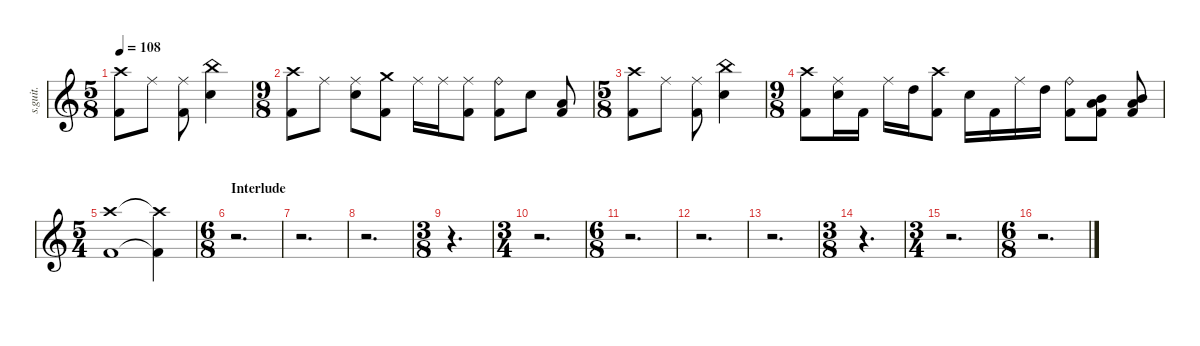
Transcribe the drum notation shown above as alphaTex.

\defaultSystemsLayout 4
\hideDynamics
\bracketExtendMode nobrackets
\track ("Danny Carey" "s.guit.") {instrument percussion}
\staff {score}
\articulation defaults
\ts (5 8)
\beaming (8 2 2 2 2)
\tempo 108
\clef g2
\ks c
("Crash high (hit)" "Kick (hit) 2").8{lyrics (0 "") lyrics (1 "") lyrics (2 "") lyrics (3 "") lyrics (4 "") dy f} "Ride (middle)".8{lyrics (0 "") lyrics (1 "") lyrics (2 "") lyrics (3 "") lyrics (4 "")} ("Ride (middle)" "Kick (hit) 2").8{lyrics (0 "") lyrics (1 "") lyrics (2 "") lyrics (3 "") lyrics (4 "")} ("Snare (hit) 2" "China (hit)").4{lyrics (0 "") lyrics (1 "") lyrics (2 "") lyrics (3 "") lyrics (4 "")} |
\ts (9 8)
\beaming (8 2 2 2 2)
("Crash high (hit)" "Kick (hit) 2").8{lyrics (0 "") lyrics (1 "") lyrics (2 "") lyrics (3 "") lyrics (4 "")} "Ride (middle)".8{lyrics (0 "") lyrics (1 "") lyrics (2 "") lyrics (3 "") lyrics (4 "")} ("Ride (middle)" "Snare (hit) 2").8{lyrics (0 "") lyrics (1 "") lyrics (2 "") lyrics (3 "") lyrics (4 "")} ("Kick (hit) 2" "Crash medium (hit)").8{lyrics (0 "") lyrics (1 "") lyrics (2 "") lyrics (3 "") lyrics (4 "")} "Ride (middle)".16{lyrics (0 "") lyrics (1 "") lyrics (2 "") lyrics (3 "") lyrics (4 "")} "Ride (middle)".16{lyrics (0 "") lyrics (1 "") lyrics (2 "") lyrics (3 "") lyrics (4 "")} ("Ride (middle)" "Kick (hit) 2").8{lyrics (0 "") lyrics (1 "") lyrics (2 "") lyrics (3 "") lyrics (4 "")} ("Ride (bell)" "Kick (hit) 2").8{lyrics (0 "") lyrics (1 "") lyrics (2 "") lyrics (3 "") lyrics (4 "")} "Snare (hit) 2".8{lyrics (0 "") lyrics (1 "") lyrics (2 "") lyrics (3 "") lyrics (4 "")} ("Kick (hit) 2" "Low Floor Tom (hit)").8{lyrics (0 "") lyrics (1 "") lyrics (2 "") lyrics (3 "") lyrics (4 "")} |
\ts (5 8)
\beaming (8 2 2 2 2)
("Crash high (hit)" "Kick (hit) 2").8{lyrics (0 "") lyrics (1 "") lyrics (2 "") lyrics (3 "") lyrics (4 "")} "Ride (middle)".8{lyrics (0 "") lyrics (1 "") lyrics (2 "") lyrics (3 "") lyrics (4 "")} ("Ride (middle)" "Kick (hit) 2").8{lyrics (0 "") lyrics (1 "") lyrics (2 "") lyrics (3 "") lyrics (4 "")} ("Snare (hit) 2" "China (hit)").4{lyrics (0 "") lyrics (1 "") lyrics (2 "") lyrics (3 "") lyrics (4 "")} |
\ts (9 8)
\beaming (8 2 2 2 2)
("Crash high (hit)" "Kick (hit) 2").8{lyrics (0 "") lyrics (1 "") lyrics (2 "") lyrics (3 "") lyrics (4 "")} ("Snare (hit) 2" "Ride (middle)").16{lyrics (0 "") lyrics (1 "") lyrics (2 "") lyrics (3 "") lyrics (4 "")} "Kick (hit) 2".16{lyrics (0 "") lyrics (1 "") lyrics (2 "") lyrics (3 "") lyrics (4 "")} "Ride (middle)".16{lyrics (0 "") lyrics (1 "") lyrics (2 "") lyrics (3 "") lyrics (4 "")} "High Tom (hit)".16{lyrics (0 "") lyrics (1 "") lyrics (2 "") lyrics (3 "") lyrics (4 "")} ("Crash high (hit)" "Kick (hit) 2").8{lyrics (0 "") lyrics (1 "") lyrics (2 "") lyrics (3 "") lyrics (4 "")} "Snare (hit) 2".16{lyrics (0 "") lyrics (1 "") lyrics (2 "") lyrics (3 "") lyrics (4 "")} "Kick (hit) 2".16{lyrics (0 "") lyrics (1 "") lyrics (2 "") lyrics (3 "") lyrics (4 "")} "Ride (middle)".16{lyrics (0 "") lyrics (1 "") lyrics (2 "") lyrics (3 "") lyrics (4 "")} "High Tom (hit)".16{lyrics (0 "") lyrics (1 "") lyrics (2 "") lyrics (3 "") lyrics (4 "")} ("Ride (bell)" "Kick (hit) 2").8{lyrics (0 "") lyrics (1 "") lyrics (2 "") lyrics (3 "") lyrics (4 "")} ("Kick (hit) 2" "Mid Tom (hit)" "Low Floor Tom (hit)").8{lyrics (0 "") lyrics (1 "") lyrics (2 "") lyrics (3 "") lyrics (4 "")} ("Kick (hit) 2" "Mid Tom (hit)" "Low Floor Tom (hit)").8{lyrics (0 "") lyrics (1 "") lyrics (2 "") lyrics (3 "") lyrics (4 "")} |
\ts (5 4)
\beaming (8 2 2 2 2)
("Crash high (hit)" "Kick (hit) 2").1{lyrics (0 "") lyrics (1 "") lyrics (2 "") lyrics (3 "") lyrics (4 "")} ("Crash high (hit)"{t} "Kick (hit) 2"{t}).4{lyrics (0 "") lyrics (1 "") lyrics (2 "") lyrics (3 "") lyrics (4 "")} |
\ts (6 8)
\beaming (8 2 2 2 2)
\section ("" "Interlude")
r.2{d} |
r.2{d} |
r.2{d} |
\ts (3 8)
\beaming (8 2 2 2 2)
r.4{d} |
\ts (3 4)
\beaming (8 2 2 2 2)
r.2{d} |
\ts (6 8)
\beaming (8 2 2 2 2)
r.2{d} |
r.2{d} |
r.2{d} |
\ts (3 8)
\beaming (8 2 2 2 2)
r.4{d} |
\ts (3 4)
\beaming (8 2 2 2 2)
r.2{d} |
\ts (6 8)
\beaming (8 2 2 2 2)
r.2{d}
